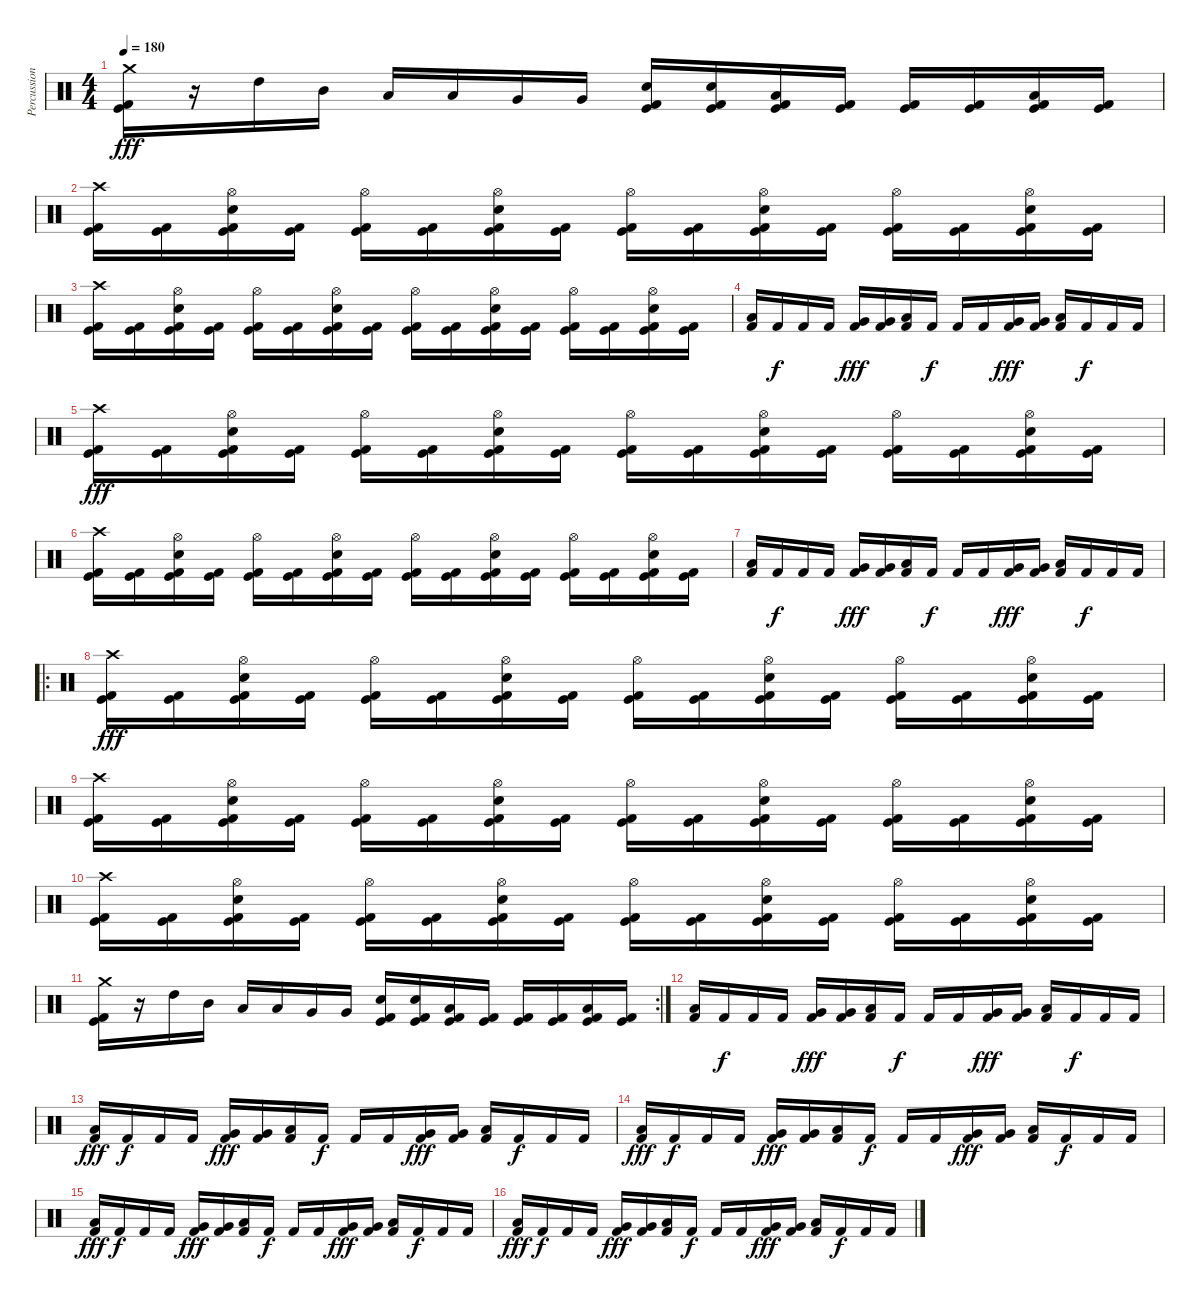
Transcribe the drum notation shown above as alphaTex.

\track ("Percussion" "Percussion") {instrument percussion}
\staff {score}
\articulation defaults
\ts (4 4)
\tempo 180
\clef neutral
\ks c
("Kick (hit) 2" "Kick (hit)" "Crash medium (hit)").16{dy fff} r.16 "High Tom (hit)".16 "Mid Tom (hit)".16 "Low Tom (hit)".16 "Low Tom (hit)".16 "Very Low Tom (hit)".16 "Very Low Tom (hit)".16 ("Kick (hit) 2" "Kick (hit)" "Snare (hit) 2").16 ("Kick (hit) 2" "Kick (hit)" "Snare (hit) 2").16 ("Kick (hit) 2" "Kick (hit)" "Low Tom (hit)").16 ("Kick (hit) 2" "Kick (hit)").16 ("Kick (hit) 2" "Kick (hit)").16 ("Kick (hit) 2" "Kick (hit)").16 ("Kick (hit) 2" "Kick (hit)" "Low Floor Tom (hit)").16 ("Kick (hit) 2" "Kick (hit)").16 |
("Kick (hit) 2" "Kick (hit)" "Crash high (hit)").16 ("Kick (hit) 2" "Kick (hit)").16 ("Kick (hit) 2" "Kick (hit)" "Snare (hit) 2" "Hi-Hat (open)").16 ("Kick (hit) 2" "Kick (hit)").16 ("Kick (hit) 2" "Kick (hit)" "Hi-Hat (open)").16 ("Kick (hit) 2" "Kick (hit)").16 ("Kick (hit) 2" "Kick (hit)" "Snare (hit) 2" "Hi-Hat (open)").16 ("Kick (hit) 2" "Kick (hit)").16 ("Kick (hit) 2" "Kick (hit)" "Hi-Hat (open)").16 ("Kick (hit) 2" "Kick (hit)").16 ("Kick (hit) 2" "Kick (hit)" "Snare (hit) 2" "Hi-Hat (open)").16 ("Kick (hit) 2" "Kick (hit)").16 ("Kick (hit) 2" "Kick (hit)" "Hi-Hat (open)").16 ("Kick (hit) 2" "Kick (hit)").16 ("Kick (hit) 2" "Kick (hit)" "Snare (hit) 2" "Hi-Hat (open)").16 ("Kick (hit) 2" "Kick (hit)").16 |
("Kick (hit) 2" "Kick (hit)" "Crash high (hit)").16 ("Kick (hit) 2" "Kick (hit)").16 ("Kick (hit) 2" "Kick (hit)" "Snare (hit) 2" "Hi-Hat (open)").16 ("Kick (hit) 2" "Kick (hit)").16 ("Kick (hit) 2" "Kick (hit)" "Hi-Hat (open)").16 ("Kick (hit) 2" "Kick (hit)").16 ("Kick (hit) 2" "Kick (hit)" "Snare (hit) 2" "Hi-Hat (open)").16 ("Kick (hit) 2" "Kick (hit)").16 ("Kick (hit) 2" "Kick (hit)" "Hi-Hat (open)").16 ("Kick (hit) 2" "Kick (hit)").16 ("Kick (hit) 2" "Kick (hit)" "Snare (hit) 2" "Hi-Hat (open)").16 ("Kick (hit) 2" "Kick (hit)").16 ("Kick (hit) 2" "Kick (hit)" "Hi-Hat (open)").16 ("Kick (hit) 2" "Kick (hit)").16 ("Kick (hit) 2" "Kick (hit)" "Snare (hit) 2" "Hi-Hat (open)").16 ("Kick (hit) 2" "Kick (hit)").16 |
("Kick (hit) 2" "Low Tom (hit)").16 "Kick (hit) 2".16{dy f} "Kick (hit) 2".16 "Kick (hit) 2".16 ("Kick (hit) 2" "Very Low Tom (hit)").16{dy fff} ("Kick (hit) 2" "Very Low Tom (hit)").16 ("Kick (hit) 2" "Low Tom (hit)").16 "Kick (hit) 2".16{dy f} "Kick (hit) 2".16 "Kick (hit) 2".16 ("Kick (hit) 2" "Very Low Tom (hit)").16{dy fff} ("Kick (hit) 2" "Very Low Tom (hit)").16 ("Kick (hit) 2" "Low Tom (hit)").16 "Kick (hit) 2".16{dy f} "Kick (hit) 2".16 "Kick (hit) 2".16 |
("Kick (hit) 2" "Kick (hit)" "Crash high (hit)").16{dy fff} ("Kick (hit) 2" "Kick (hit)").16 ("Kick (hit) 2" "Kick (hit)" "Snare (hit) 2" "Hi-Hat (open)").16 ("Kick (hit) 2" "Kick (hit)").16 ("Kick (hit) 2" "Kick (hit)" "Hi-Hat (open)").16 ("Kick (hit) 2" "Kick (hit)").16 ("Kick (hit) 2" "Kick (hit)" "Snare (hit) 2" "Hi-Hat (open)").16 ("Kick (hit) 2" "Kick (hit)").16 ("Kick (hit) 2" "Kick (hit)" "Hi-Hat (open)").16 ("Kick (hit) 2" "Kick (hit)").16 ("Kick (hit) 2" "Kick (hit)" "Snare (hit) 2" "Hi-Hat (open)").16 ("Kick (hit) 2" "Kick (hit)").16 ("Kick (hit) 2" "Kick (hit)" "Hi-Hat (open)").16 ("Kick (hit) 2" "Kick (hit)").16 ("Kick (hit) 2" "Kick (hit)" "Snare (hit) 2" "Hi-Hat (open)").16 ("Kick (hit) 2" "Kick (hit)").16 |
("Kick (hit) 2" "Kick (hit)" "Crash high (hit)").16 ("Kick (hit) 2" "Kick (hit)").16 ("Kick (hit) 2" "Kick (hit)" "Snare (hit) 2" "Hi-Hat (open)").16 ("Kick (hit) 2" "Kick (hit)").16 ("Kick (hit) 2" "Kick (hit)" "Hi-Hat (open)").16 ("Kick (hit) 2" "Kick (hit)").16 ("Kick (hit) 2" "Kick (hit)" "Snare (hit) 2" "Hi-Hat (open)").16 ("Kick (hit) 2" "Kick (hit)").16 ("Kick (hit) 2" "Kick (hit)" "Hi-Hat (open)").16 ("Kick (hit) 2" "Kick (hit)").16 ("Kick (hit) 2" "Kick (hit)" "Snare (hit) 2" "Hi-Hat (open)").16 ("Kick (hit) 2" "Kick (hit)").16 ("Kick (hit) 2" "Kick (hit)" "Hi-Hat (open)").16 ("Kick (hit) 2" "Kick (hit)").16 ("Kick (hit) 2" "Kick (hit)" "Snare (hit) 2" "Hi-Hat (open)").16 ("Kick (hit) 2" "Kick (hit)").16 |
("Kick (hit) 2" "Low Tom (hit)").16 "Kick (hit) 2".16{dy f} "Kick (hit) 2".16 "Kick (hit) 2".16 ("Kick (hit) 2" "Very Low Tom (hit)").16{dy fff} ("Kick (hit) 2" "Very Low Tom (hit)").16 ("Kick (hit) 2" "Low Tom (hit)").16 "Kick (hit) 2".16{dy f} "Kick (hit) 2".16 "Kick (hit) 2".16 ("Kick (hit) 2" "Very Low Tom (hit)").16{dy fff} ("Kick (hit) 2" "Very Low Tom (hit)").16 ("Kick (hit) 2" "Low Tom (hit)").16 "Kick (hit) 2".16{dy f} "Kick (hit) 2".16 "Kick (hit) 2".16 |
\ro
("Kick (hit) 2" "Kick (hit)" "Crash high (hit)").16{dy fff} ("Kick (hit) 2" "Kick (hit)").16 ("Kick (hit) 2" "Kick (hit)" "Snare (hit) 2" "Hi-Hat (open)").16 ("Kick (hit) 2" "Kick (hit)").16 ("Kick (hit) 2" "Kick (hit)" "Hi-Hat (open)").16 ("Kick (hit) 2" "Kick (hit)").16 ("Kick (hit) 2" "Kick (hit)" "Snare (hit) 2" "Hi-Hat (open)").16 ("Kick (hit) 2" "Kick (hit)").16 ("Kick (hit) 2" "Kick (hit)" "Hi-Hat (open)").16 ("Kick (hit) 2" "Kick (hit)").16 ("Kick (hit) 2" "Kick (hit)" "Snare (hit) 2" "Hi-Hat (open)").16 ("Kick (hit) 2" "Kick (hit)").16 ("Kick (hit) 2" "Kick (hit)" "Hi-Hat (open)").16 ("Kick (hit) 2" "Kick (hit)").16 ("Kick (hit) 2" "Kick (hit)" "Snare (hit) 2" "Hi-Hat (open)").16 ("Kick (hit) 2" "Kick (hit)").16 |
("Kick (hit) 2" "Kick (hit)" "Crash high (hit)").16 ("Kick (hit) 2" "Kick (hit)").16 ("Kick (hit) 2" "Kick (hit)" "Snare (hit) 2" "Hi-Hat (open)").16 ("Kick (hit) 2" "Kick (hit)").16 ("Kick (hit) 2" "Kick (hit)" "Hi-Hat (open)").16 ("Kick (hit) 2" "Kick (hit)").16 ("Kick (hit) 2" "Kick (hit)" "Snare (hit) 2" "Hi-Hat (open)").16 ("Kick (hit) 2" "Kick (hit)").16 ("Kick (hit) 2" "Kick (hit)" "Hi-Hat (open)").16 ("Kick (hit) 2" "Kick (hit)").16 ("Kick (hit) 2" "Kick (hit)" "Snare (hit) 2" "Hi-Hat (open)").16 ("Kick (hit) 2" "Kick (hit)").16 ("Kick (hit) 2" "Kick (hit)" "Hi-Hat (open)").16 ("Kick (hit) 2" "Kick (hit)").16 ("Kick (hit) 2" "Kick (hit)" "Snare (hit) 2" "Hi-Hat (open)").16 ("Kick (hit) 2" "Kick (hit)").16 |
("Kick (hit) 2" "Kick (hit)" "Crash high (hit)").16 ("Kick (hit) 2" "Kick (hit)").16 ("Kick (hit) 2" "Kick (hit)" "Snare (hit) 2" "Hi-Hat (open)").16 ("Kick (hit) 2" "Kick (hit)").16 ("Kick (hit) 2" "Kick (hit)" "Hi-Hat (open)").16 ("Kick (hit) 2" "Kick (hit)").16 ("Kick (hit) 2" "Kick (hit)" "Snare (hit) 2" "Hi-Hat (open)").16 ("Kick (hit) 2" "Kick (hit)").16 ("Kick (hit) 2" "Kick (hit)" "Hi-Hat (open)").16 ("Kick (hit) 2" "Kick (hit)").16 ("Kick (hit) 2" "Kick (hit)" "Snare (hit) 2" "Hi-Hat (open)").16 ("Kick (hit) 2" "Kick (hit)").16 ("Kick (hit) 2" "Kick (hit)" "Hi-Hat (open)").16 ("Kick (hit) 2" "Kick (hit)").16 ("Kick (hit) 2" "Kick (hit)" "Snare (hit) 2" "Hi-Hat (open)").16 ("Kick (hit) 2" "Kick (hit)").16 |
\rc 2
("Kick (hit) 2" "Kick (hit)" "Crash medium (hit)").16 r.16 "High Tom (hit)".16 "Mid Tom (hit)".16 "Low Tom (hit)".16 "Low Tom (hit)".16 "Very Low Tom (hit)".16 "Very Low Tom (hit)".16 ("Kick (hit) 2" "Kick (hit)" "Snare (hit) 2").16 ("Kick (hit) 2" "Kick (hit)" "Snare (hit) 2").16 ("Kick (hit) 2" "Kick (hit)" "Low Tom (hit)").16 ("Kick (hit) 2" "Kick (hit)").16 ("Kick (hit) 2" "Kick (hit)").16 ("Kick (hit) 2" "Kick (hit)").16 ("Kick (hit) 2" "Kick (hit)" "Low Floor Tom (hit)").16 ("Kick (hit) 2" "Kick (hit)").16 |
("Kick (hit) 2" "Low Tom (hit)").16 "Kick (hit) 2".16{dy f} "Kick (hit) 2".16 "Kick (hit) 2".16 ("Kick (hit) 2" "Very Low Tom (hit)").16{dy fff} ("Kick (hit) 2" "Very Low Tom (hit)").16 ("Kick (hit) 2" "Low Tom (hit)").16 "Kick (hit) 2".16{dy f} "Kick (hit) 2".16 "Kick (hit) 2".16 ("Kick (hit) 2" "Very Low Tom (hit)").16{dy fff} ("Kick (hit) 2" "Very Low Tom (hit)").16 ("Kick (hit) 2" "Low Tom (hit)").16 "Kick (hit) 2".16{dy f} "Kick (hit) 2".16 "Kick (hit) 2".16 |
("Kick (hit) 2" "Low Tom (hit)").16{dy fff} "Kick (hit) 2".16{dy f} "Kick (hit) 2".16 "Kick (hit) 2".16 ("Kick (hit) 2" "Very Low Tom (hit)").16{dy fff} ("Kick (hit) 2" "Very Low Tom (hit)").16 ("Kick (hit) 2" "Low Tom (hit)").16 "Kick (hit) 2".16{dy f} "Kick (hit) 2".16 "Kick (hit) 2".16 ("Kick (hit) 2" "Very Low Tom (hit)").16{dy fff} ("Kick (hit) 2" "Very Low Tom (hit)").16 ("Kick (hit) 2" "Low Tom (hit)").16 "Kick (hit) 2".16{dy f} "Kick (hit) 2".16 "Kick (hit) 2".16 |
("Kick (hit) 2" "Low Tom (hit)").16{dy fff} "Kick (hit) 2".16{dy f} "Kick (hit) 2".16 "Kick (hit) 2".16 ("Kick (hit) 2" "Very Low Tom (hit)").16{dy fff} ("Kick (hit) 2" "Very Low Tom (hit)").16 ("Kick (hit) 2" "Low Tom (hit)").16 "Kick (hit) 2".16{dy f} "Kick (hit) 2".16 "Kick (hit) 2".16 ("Kick (hit) 2" "Very Low Tom (hit)").16{dy fff} ("Kick (hit) 2" "Very Low Tom (hit)").16 ("Kick (hit) 2" "Low Tom (hit)").16 "Kick (hit) 2".16{dy f} "Kick (hit) 2".16 "Kick (hit) 2".16 |
("Kick (hit) 2" "Low Tom (hit)").16{dy fff} "Kick (hit) 2".16{dy f} "Kick (hit) 2".16 "Kick (hit) 2".16 ("Kick (hit) 2" "Very Low Tom (hit)").16{dy fff} ("Kick (hit) 2" "Very Low Tom (hit)").16 ("Kick (hit) 2" "Low Tom (hit)").16 "Kick (hit) 2".16{dy f} "Kick (hit) 2".16 "Kick (hit) 2".16 ("Kick (hit) 2" "Very Low Tom (hit)").16{dy fff} ("Kick (hit) 2" "Very Low Tom (hit)").16 ("Kick (hit) 2" "Low Tom (hit)").16 "Kick (hit) 2".16{dy f} "Kick (hit) 2".16 "Kick (hit) 2".16 |
("Kick (hit) 2" "Low Tom (hit)").16{dy fff} "Kick (hit) 2".16{dy f} "Kick (hit) 2".16 "Kick (hit) 2".16 ("Kick (hit) 2" "Very Low Tom (hit)").16{dy fff} ("Kick (hit) 2" "Very Low Tom (hit)").16 ("Kick (hit) 2" "Low Tom (hit)").16 "Kick (hit) 2".16{dy f} "Kick (hit) 2".16 "Kick (hit) 2".16 ("Kick (hit) 2" "Very Low Tom (hit)").16{dy fff} ("Kick (hit) 2" "Very Low Tom (hit)").16 ("Kick (hit) 2" "Low Tom (hit)").16 "Kick (hit) 2".16{dy f} "Kick (hit) 2".16 "Kick (hit) 2".16
